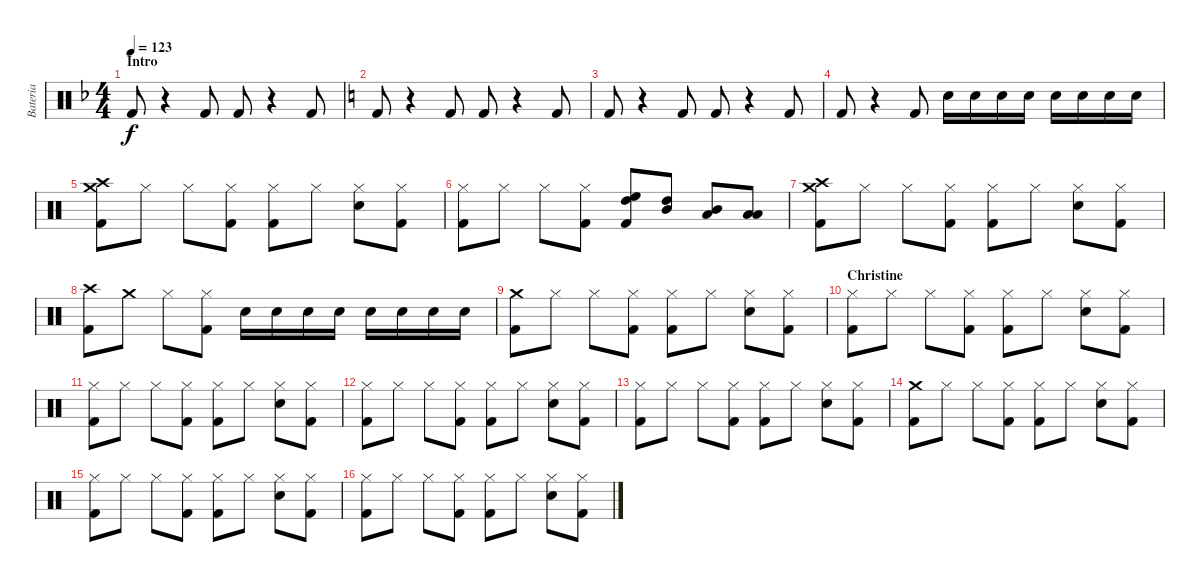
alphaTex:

\track ("Bateria" "Bateria") {instrument percussion}
\staff {score}
\articulation defaults
\ts (4 4)
\section ("" "Intro")
\tempo 123
\clef neutral
\ks dminor "Kick (hit) 2".8{dy f}
r.4 "Kick (hit) 2".8 "Kick (hit) 2".8 r.4 "Kick (hit) 2".8 |
\ks c "Kick (hit) 2".8
r.4 "Kick (hit) 2".8 "Kick (hit) 2".8 r.4 "Kick (hit) 2".8 |
"Kick (hit) 2".8 r.4 "Kick (hit) 2".8 "Kick (hit) 2".8 r.4 "Kick (hit) 2".8 |
"Kick (hit) 2".8 r.4 "Kick (hit) 2".8 "Snare (hit) 2".16 "Snare (hit) 2".16 "Snare (hit) 2".16 "Snare (hit) 2".16 "Snare (hit) 2".16 "Snare (hit) 2".16 "Snare (hit) 2".16 "Snare (hit) 2".16 |
("Crash high (hit)" "Crash medium (hit)" "Kick (hit) 2").8 "Hi-Hat (closed)".8 "Hi-Hat (closed)".8 ("Hi-Hat (closed)" "Kick (hit) 2").8 ("Hi-Hat (closed)" "Kick (hit) 2").8 "Hi-Hat (closed)".8 ("Hi-Hat (closed)" "Snare (hit) 2").8 ("Hi-Hat (closed)" "Kick (hit) 2").8 |
("Hi-Hat (closed)" "Kick (hit) 2").8 "Hi-Hat (closed)".8 "Hi-Hat (closed)".8 ("Hi-Hat (closed)" "Kick (hit) 2").8 ("High Floor Tom (hit)" "High Tom (hit)" "Kick (hit) 2").8 ("High Tom (hit)" "Mid Tom (hit)").8 ("Mid Tom (hit)" "Low Tom (hit)").8 ("Low Tom (hit)" "Low Tom (hit)").8 |
("Crash medium (hit)" "Crash high (hit)" "Kick (hit) 2").8 "Hi-Hat (closed)".8 "Hi-Hat (closed)".8 ("Hi-Hat (closed)" "Kick (hit) 2").8 ("Hi-Hat (closed)" "Kick (hit) 2").8 "Hi-Hat (closed)".8 ("Hi-Hat (closed)" "Snare (hit) 2").8 ("Hi-Hat (closed)" "Kick (hit) 2").8 |
("Crash high (hit)" "Kick (hit) 2").8 "Crash medium (hit)".8 "Hi-Hat (closed)".8 ("Hi-Hat (closed)" "Kick (hit) 2").8 "Snare (hit) 2".16 "Snare (hit) 2".16 "Snare (hit) 2".16 "Snare (hit) 2".16 "Snare (hit) 2".16 "Snare (hit) 2".16 "Snare (hit) 2".16 "Snare (hit) 2".16 |
("Crash medium (hit)" "Kick (hit) 2").8 "Hi-Hat (closed)".8 "Hi-Hat (closed)".8 ("Hi-Hat (closed)" "Kick (hit) 2").8 ("Hi-Hat (closed)" "Kick (hit) 2").8 "Hi-Hat (closed)".8 ("Hi-Hat (closed)" "Snare (hit) 2").8 ("Hi-Hat (closed)" "Kick (hit) 2").8 |
\section ("" "Christine")
("Hi-Hat (closed)" "Kick (hit) 2").8 "Hi-Hat (closed)".8 "Hi-Hat (closed)".8 ("Hi-Hat (closed)" "Kick (hit) 2").8 ("Hi-Hat (closed)" "Kick (hit) 2").8 "Hi-Hat (closed)".8 ("Hi-Hat (closed)" "Snare (hit) 2").8 ("Hi-Hat (closed)" "Kick (hit) 2").8 |
("Hi-Hat (closed)" "Kick (hit) 2").8 "Hi-Hat (closed)".8 "Hi-Hat (closed)".8 ("Hi-Hat (closed)" "Kick (hit) 2").8 ("Hi-Hat (closed)" "Kick (hit) 2").8 "Hi-Hat (closed)".8 ("Hi-Hat (closed)" "Snare (hit) 2").8 ("Hi-Hat (closed)" "Kick (hit) 2").8 |
("Hi-Hat (closed)" "Kick (hit) 2").8 "Hi-Hat (closed)".8 "Hi-Hat (closed)".8 ("Hi-Hat (closed)" "Kick (hit) 2").8 ("Hi-Hat (closed)" "Kick (hit) 2").8 "Hi-Hat (closed)".8 ("Hi-Hat (closed)" "Snare (hit) 2").8 ("Hi-Hat (closed)" "Kick (hit) 2").8 |
("Hi-Hat (closed)" "Kick (hit) 2").8 "Hi-Hat (closed)".8 "Hi-Hat (closed)".8 ("Hi-Hat (closed)" "Kick (hit) 2").8 ("Hi-Hat (closed)" "Kick (hit) 2").8 "Hi-Hat (closed)".8 ("Hi-Hat (closed)" "Snare (hit) 2").8 ("Hi-Hat (closed)" "Kick (hit) 2").8 |
("Crash medium (hit)" "Kick (hit) 2").8 "Hi-Hat (closed)".8 "Hi-Hat (closed)".8 ("Hi-Hat (closed)" "Kick (hit) 2").8 ("Hi-Hat (closed)" "Kick (hit) 2").8 "Hi-Hat (closed)".8 ("Hi-Hat (closed)" "Snare (hit) 2").8 ("Hi-Hat (closed)" "Kick (hit) 2").8 |
("Hi-Hat (closed)" "Kick (hit) 2").8 "Hi-Hat (closed)".8 "Hi-Hat (closed)".8 ("Hi-Hat (closed)" "Kick (hit) 2").8 ("Hi-Hat (closed)" "Kick (hit) 2").8 "Hi-Hat (closed)".8 ("Hi-Hat (closed)" "Snare (hit) 2").8 ("Hi-Hat (closed)" "Kick (hit) 2").8 |
("Hi-Hat (closed)" "Kick (hit) 2").8 "Hi-Hat (closed)".8 "Hi-Hat (closed)".8 ("Hi-Hat (closed)" "Kick (hit) 2").8 ("Hi-Hat (closed)" "Kick (hit) 2").8 "Hi-Hat (closed)".8 ("Hi-Hat (closed)" "Snare (hit) 2").8 ("Hi-Hat (closed)" "Kick (hit) 2").8
